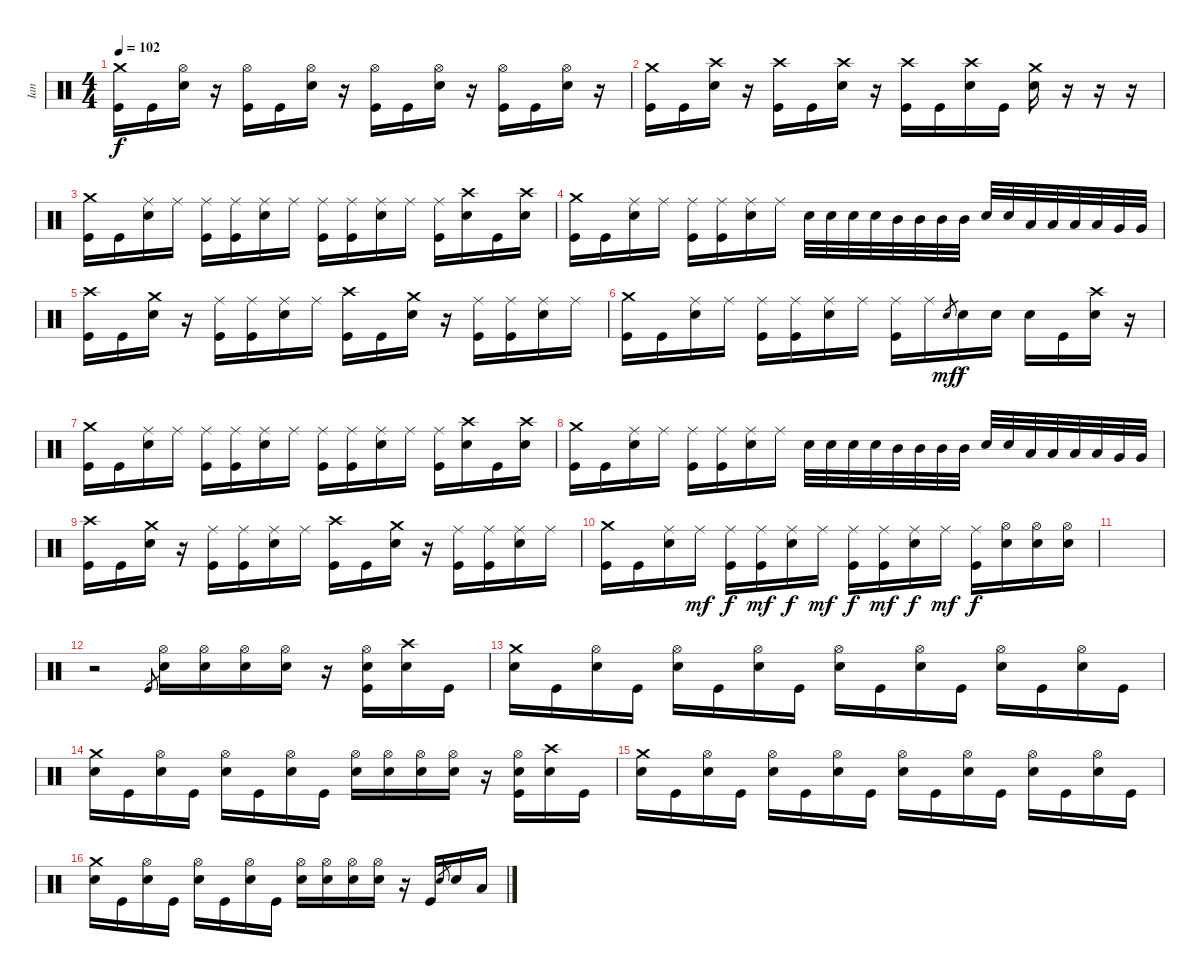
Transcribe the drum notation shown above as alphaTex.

\track ("Ian" "Ian") {instrument percussion}
\staff {score}
\articulation defaults
\ts (4 4)
\tempo 102
\clef neutral
\ks c
("Crash medium (hit)" "Kick (hit)").16{dy f} "Kick (hit)".16 ("Hi-Hat (open)" "Electric Snare (hit)").16 r.16 ("Hi-Hat (open)" "Kick (hit)").16 "Kick (hit)".16 ("Hi-Hat (open)" "Electric Snare (hit)").16 r.16 ("Hi-Hat (open)" "Kick (hit)").16 "Kick (hit)".16 ("Hi-Hat (open)" "Electric Snare (hit)").16 r.16 ("Hi-Hat (open)" "Kick (hit)").16 "Kick (hit)".16 ("Hi-Hat (open)" "Electric Snare (hit)").16 r.16 |
("Crash medium (hit)" "Kick (hit)").16 "Kick (hit)".16 ("Crash high (hit)" "Electric Snare (hit)").16 r.16 ("Crash high (hit)" "Kick (hit)").16 "Kick (hit)".16 ("Crash high (hit)" "Electric Snare (hit)").16 r.16 ("Crash high (hit)" "Kick (hit)").16 "Kick (hit)".16 ("Crash high (hit)" "Electric Snare (hit)").16 "Kick (hit)".16 ("Crash medium (hit)" "Electric Snare (hit)").16 r.16 r.16 r.16 |
("Crash medium (hit)" "Kick (hit)").16 "Kick (hit)".16 ("Ride (middle)" "Electric Snare (hit)").16 "Ride (middle)".16 ("Ride (middle)" "Kick (hit)").16 ("Ride (middle)" "Kick (hit)").16 ("Ride (middle)" "Electric Snare (hit)").16 "Ride (middle)".16 ("Ride (middle)" "Kick (hit)").16 ("Ride (middle)" "Kick (hit)").16 ("Ride (middle)" "Electric Snare (hit)").16 "Ride (middle)".16 ("Ride (middle)" "Kick (hit)").16 ("Crash high (hit)" "Electric Snare (hit)").16 "Kick (hit)".16 ("Crash high (hit)" "Electric Snare (hit)").16 |
("Crash medium (hit)" "Kick (hit)").16 "Kick (hit)".16 ("Ride (middle)" "Electric Snare (hit)").16 "Ride (middle)".16 ("Ride (middle)" "Kick (hit)").16 ("Ride (middle)" "Kick (hit)").16 ("Ride (middle)" "Electric Snare (hit)").16 "Ride (middle)".16 "Electric Snare (hit)".32 "Electric Snare (hit)".32 "Electric Snare (hit)".32 "Electric Snare (hit)".32 "Mid Tom (hit)".32 "Mid Tom (hit)".32 "Mid Tom (hit)".32 "Mid Tom (hit)".32 "Electric Snare (hit)".32 "Electric Snare (hit)".32 "Low Tom (hit)".32 "Low Tom (hit)".32 "Low Tom (hit)".32 "Low Tom (hit)".32 "Very Low Tom (hit)".32 "Very Low Tom (hit)".32 |
("Crash high (hit)" "Kick (hit)").16 "Kick (hit)".16 ("Crash medium (hit)" "Electric Snare (hit)").16 r.16 ("Ride (middle)" "Kick (hit)").16 ("Ride (middle)" "Kick (hit)").16 ("Ride (middle)" "Electric Snare (hit)").16 "Ride (middle)".16 ("Crash high (hit)" "Kick (hit)").16 "Kick (hit)".16 ("Crash medium (hit)" "Electric Snare (hit)").16 r.16 ("Ride (middle)" "Kick (hit)").16 ("Ride (middle)" "Kick (hit)").16 ("Ride (middle)" "Electric Snare (hit)").16 "Ride (middle)".16 |
("Crash medium (hit)" "Kick (hit)").16 "Kick (hit)".16 ("Ride (middle)" "Electric Snare (hit)").16 "Ride (middle)".16 ("Ride (middle)" "Kick (hit)").16 ("Ride (middle)" "Kick (hit)").16 ("Ride (middle)" "Electric Snare (hit)").16 "Ride (middle)".16 ("Ride (middle)" "Kick (hit)").16 "Ride (middle)".16 "Electric Snare (hit)".8{gr dy mf} "Electric Snare (hit)".16{dy f} "Electric Snare (hit)".16 "Electric Snare (hit)".16 "Kick (hit)".16 ("Crash high (hit)" "Electric Snare (hit)").16 r.16 |
("Crash medium (hit)" "Kick (hit)").16 "Kick (hit)".16 ("Ride (middle)" "Electric Snare (hit)").16 "Ride (middle)".16 ("Ride (middle)" "Kick (hit)").16 ("Ride (middle)" "Kick (hit)").16 ("Ride (middle)" "Electric Snare (hit)").16 "Ride (middle)".16 ("Ride (middle)" "Kick (hit)").16 ("Ride (middle)" "Kick (hit)").16 ("Ride (middle)" "Electric Snare (hit)").16 "Ride (middle)".16 ("Ride (middle)" "Kick (hit)").16 ("Crash high (hit)" "Electric Snare (hit)").16 "Kick (hit)".16 ("Crash high (hit)" "Electric Snare (hit)").16 |
("Crash medium (hit)" "Kick (hit)").16 "Kick (hit)".16 ("Ride (middle)" "Electric Snare (hit)").16 "Ride (middle)".16 ("Ride (middle)" "Kick (hit)").16 ("Ride (middle)" "Kick (hit)").16 ("Ride (middle)" "Electric Snare (hit)").16 "Ride (middle)".16 "Electric Snare (hit)".32 "Electric Snare (hit)".32 "Electric Snare (hit)".32 "Electric Snare (hit)".32 "Mid Tom (hit)".32 "Mid Tom (hit)".32 "Mid Tom (hit)".32 "Mid Tom (hit)".32 "Electric Snare (hit)".32 "Electric Snare (hit)".32 "Low Tom (hit)".32 "Low Tom (hit)".32 "Low Tom (hit)".32 "Low Tom (hit)".32 "Very Low Tom (hit)".32 "Very Low Tom (hit)".32 |
("Crash high (hit)" "Kick (hit)").16 "Kick (hit)".16 ("Crash medium (hit)" "Electric Snare (hit)").16 r.16 ("Ride (middle)" "Kick (hit)").16 ("Ride (middle)" "Kick (hit)").16 ("Ride (middle)" "Electric Snare (hit)").16 "Ride (middle)".16 ("Crash high (hit)" "Kick (hit)").16 "Kick (hit)".16 ("Crash medium (hit)" "Electric Snare (hit)").16 r.16 ("Ride (middle)" "Kick (hit)").16 ("Ride (middle)" "Kick (hit)").16 ("Ride (middle)" "Electric Snare (hit)").16 "Ride (middle)".16 |
("Crash medium (hit)" "Kick (hit)").16 "Kick (hit)".16 ("Ride (middle)" "Electric Snare (hit)").16 "Ride (middle)".16{dy mf} ("Ride (middle)" "Kick (hit)").16{dy f} ("Ride (middle)" "Kick (hit)").16{dy mf} ("Ride (middle)" "Electric Snare (hit)").16{dy f} "Ride (middle)".16{dy mf} ("Ride (middle)" "Kick (hit)").16{dy f} ("Ride (middle)" "Kick (hit)").16{dy mf} ("Ride (middle)" "Electric Snare (hit)").16{dy f} "Ride (middle)".16{dy mf} ("Ride (middle)" "Kick (hit)").16{dy f} ("Hi-Hat (open)" "Electric Snare (hit)").16 ("Hi-Hat (open)" "Electric Snare (hit)").16 ("Hi-Hat (open)" "Electric Snare (hit)").16 |
|
r.2 "Kick (hit)".8{gr} ("Hi-Hat (open)" "Electric Snare (hit)").16 ("Hi-Hat (open)" "Electric Snare (hit)").16 ("Hi-Hat (open)" "Electric Snare (hit)").16 ("Hi-Hat (open)" "Electric Snare (hit)").16 r.16 ("Hi-Hat (open)" "Electric Snare (hit)" "Kick (hit)").16 ("Crash high (hit)" "Electric Snare (hit)").16 "Kick (hit)".16 |
("Crash medium (hit)" "Electric Snare (hit)").16 "Kick (hit)".16 ("Hi-Hat (open)" "Electric Snare (hit)").16 "Kick (hit)".16 ("Hi-Hat (open)" "Electric Snare (hit)").16 "Kick (hit)".16 ("Hi-Hat (open)" "Electric Snare (hit)").16 "Kick (hit)".16 ("Hi-Hat (open)" "Electric Snare (hit)").16 "Kick (hit)".16 ("Hi-Hat (open)" "Electric Snare (hit)").16 "Kick (hit)".16 ("Hi-Hat (open)" "Electric Snare (hit)").16 "Kick (hit)".16 ("Hi-Hat (open)" "Electric Snare (hit)").16 "Kick (hit)".16 |
("Crash medium (hit)" "Electric Snare (hit)").16 "Kick (hit)".16 ("Hi-Hat (open)" "Electric Snare (hit)").16 "Kick (hit)".16 ("Hi-Hat (open)" "Electric Snare (hit)").16 "Kick (hit)".16 ("Hi-Hat (open)" "Electric Snare (hit)").16 "Kick (hit)".16 ("Hi-Hat (open)" "Electric Snare (hit)").16 ("Hi-Hat (open)" "Electric Snare (hit)").16 ("Hi-Hat (open)" "Electric Snare (hit)").16 ("Hi-Hat (open)" "Electric Snare (hit)").16 r.16 ("Hi-Hat (open)" "Electric Snare (hit)" "Kick (hit)").16 ("Crash high (hit)" "Electric Snare (hit)").16 "Kick (hit)".16 |
("Crash medium (hit)" "Electric Snare (hit)").16 "Kick (hit)".16 ("Hi-Hat (open)" "Electric Snare (hit)").16 "Kick (hit)".16 ("Hi-Hat (open)" "Electric Snare (hit)").16 "Kick (hit)".16 ("Hi-Hat (open)" "Electric Snare (hit)").16 "Kick (hit)".16 ("Hi-Hat (open)" "Electric Snare (hit)").16 "Kick (hit)".16 ("Hi-Hat (open)" "Electric Snare (hit)").16 "Kick (hit)".16 ("Hi-Hat (open)" "Electric Snare (hit)").16 "Kick (hit)".16 ("Hi-Hat (open)" "Electric Snare (hit)").16 "Kick (hit)".16 |
("Crash medium (hit)" "Electric Snare (hit)").16 "Kick (hit)".16 ("Hi-Hat (open)" "Electric Snare (hit)").16 "Kick (hit)".16 ("Hi-Hat (open)" "Electric Snare (hit)").16 "Kick (hit)".16 ("Hi-Hat (open)" "Electric Snare (hit)").16 "Kick (hit)".16 ("Hi-Hat (open)" "Electric Snare (hit)").16 ("Hi-Hat (open)" "Electric Snare (hit)").16 ("Hi-Hat (open)" "Electric Snare (hit)").16 ("Hi-Hat (open)" "Electric Snare (hit)").16 r.16 "Kick (hit)".16 "Electric Snare (hit)".8{gr} "Electric Snare (hit)".16 "Low Tom (hit)".16
